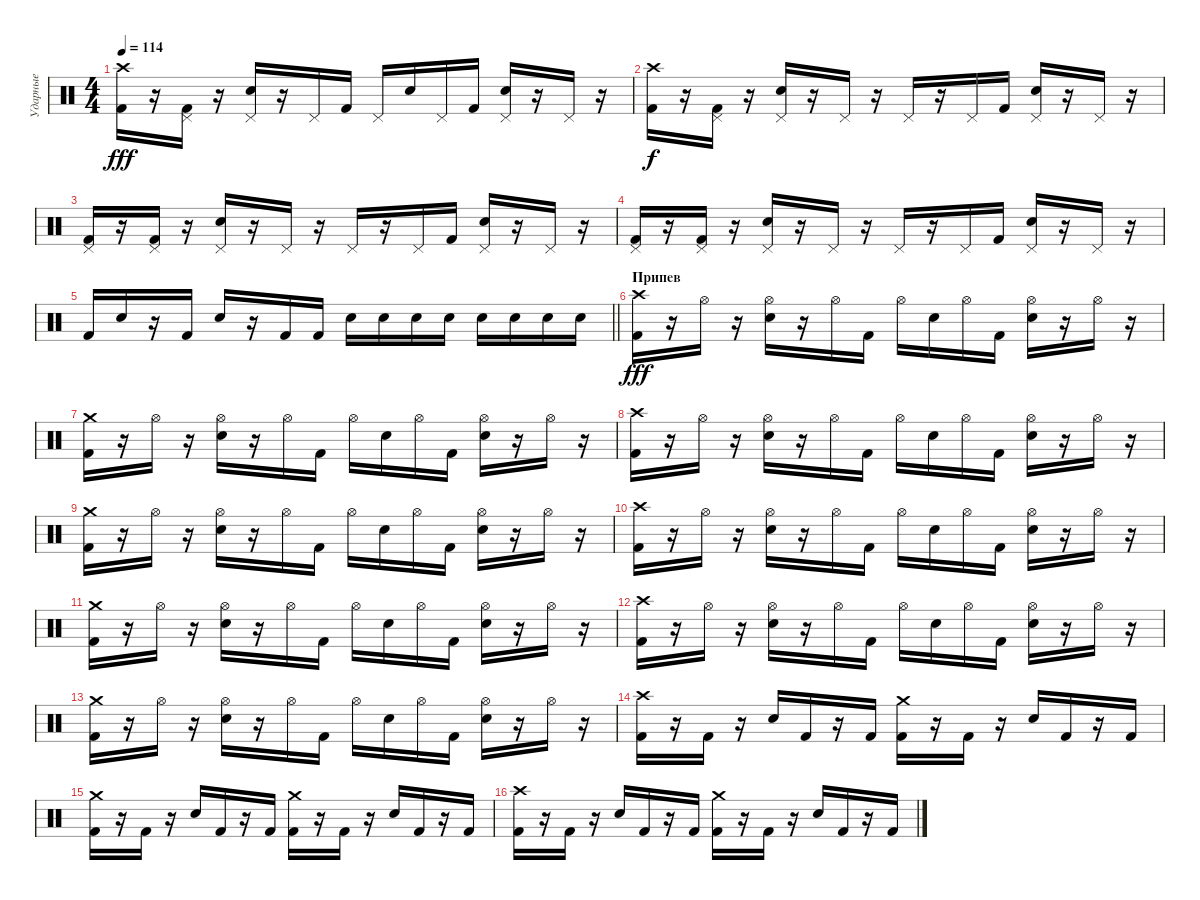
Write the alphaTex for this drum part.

\track ("Ударные" "Ударные") {instrument percussion}
\staff {score}
\articulation defaults
\ts (4 4)
\tempo 114
\clef neutral
\ks c
("Kick (hit) 2" "Crash high (hit)").16{dy fff} r.16 ("Kick (hit) 2" "Pedal Hi-Hat (hit)").16 r.16 ("Electric Snare (hit)" "Pedal Hi-Hat (hit)").16 r.16 "Pedal Hi-Hat (hit)".16 "Kick (hit) 2".16 "Pedal Hi-Hat (hit)".16 "Electric Snare (hit)".16 "Pedal Hi-Hat (hit)".16 "Kick (hit) 2".16 ("Electric Snare (hit)" "Pedal Hi-Hat (hit)").16 r.16 "Pedal Hi-Hat (hit)".16 r.16 |
("Kick (hit) 2" "Crash high (hit)").16{dy f} r.16 ("Kick (hit) 2" "Pedal Hi-Hat (hit)").16 r.16 ("Electric Snare (hit)" "Pedal Hi-Hat (hit)").16 r.16 "Pedal Hi-Hat (hit)".16 r.16 "Pedal Hi-Hat (hit)".16 r.16 "Pedal Hi-Hat (hit)".16 "Kick (hit) 2".16 ("Electric Snare (hit)" "Pedal Hi-Hat (hit)").16 r.16 "Pedal Hi-Hat (hit)".16 r.16 |
("Kick (hit) 2" "Pedal Hi-Hat (hit)").16 r.16 ("Kick (hit) 2" "Pedal Hi-Hat (hit)").16 r.16 ("Electric Snare (hit)" "Pedal Hi-Hat (hit)").16 r.16 "Pedal Hi-Hat (hit)".16 r.16 "Pedal Hi-Hat (hit)".16 r.16 "Pedal Hi-Hat (hit)".16 "Kick (hit) 2".16 ("Electric Snare (hit)" "Pedal Hi-Hat (hit)").16 r.16 "Pedal Hi-Hat (hit)".16 r.16 |
("Kick (hit) 2" "Pedal Hi-Hat (hit)").16 r.16 ("Kick (hit) 2" "Pedal Hi-Hat (hit)").16 r.16 ("Electric Snare (hit)" "Pedal Hi-Hat (hit)").16 r.16 "Pedal Hi-Hat (hit)".16 r.16 "Pedal Hi-Hat (hit)".16 r.16 "Pedal Hi-Hat (hit)".16 "Kick (hit) 2".16 ("Electric Snare (hit)" "Pedal Hi-Hat (hit)").16 r.16 "Pedal Hi-Hat (hit)".16 r.16 |
\barLineRight lightlight "Kick (hit) 2".16 "Electric Snare (hit)".16
r.16 "Kick (hit) 2".16 "Electric Snare (hit)".16 r.16 "Kick (hit) 2".16 "Kick (hit) 2".16 "Electric Snare (hit)".16 "Electric Snare (hit)".16 "Electric Snare (hit)".16 "Electric Snare (hit)".16 "Electric Snare (hit)".16 "Electric Snare (hit)".16 "Electric Snare (hit)".16 "Electric Snare (hit)".16 |
\section ("" "Припев")
("Kick (hit) 2" "Crash high (hit)").16{dy fff} r.16 "Hi-Hat (open)".16 r.16 ("Electric Snare (hit)" "Hi-Hat (open)").16 r.16 "Hi-Hat (open)".16 "Kick (hit) 2".16 "Hi-Hat (open)".16 "Electric Snare (hit)".16 "Hi-Hat (open)".16 "Kick (hit) 2".16 ("Electric Snare (hit)" "Hi-Hat (open)").16 r.16 "Hi-Hat (open)".16 r.16 |
("Kick (hit) 2" "Crash medium (hit)").16 r.16 "Hi-Hat (open)".16 r.16 ("Electric Snare (hit)" "Hi-Hat (open)").16 r.16 "Hi-Hat (open)".16 "Kick (hit) 2".16 "Hi-Hat (open)".16 "Electric Snare (hit)".16 "Hi-Hat (open)".16 "Kick (hit) 2".16 ("Electric Snare (hit)" "Hi-Hat (open)").16 r.16 "Hi-Hat (open)".16 r.16 |
("Kick (hit) 2" "Crash high (hit)").16 r.16 "Hi-Hat (open)".16 r.16 ("Electric Snare (hit)" "Hi-Hat (open)").16 r.16 "Hi-Hat (open)".16 "Kick (hit) 2".16 "Hi-Hat (open)".16 "Electric Snare (hit)".16 "Hi-Hat (open)".16 "Kick (hit) 2".16 ("Electric Snare (hit)" "Hi-Hat (open)").16 r.16 "Hi-Hat (open)".16 r.16 |
("Kick (hit) 2" "Crash medium (hit)").16 r.16 "Hi-Hat (open)".16 r.16 ("Electric Snare (hit)" "Hi-Hat (open)").16 r.16 "Hi-Hat (open)".16 "Kick (hit) 2".16 "Hi-Hat (open)".16 "Electric Snare (hit)".16 "Hi-Hat (open)".16 "Kick (hit) 2".16 ("Electric Snare (hit)" "Hi-Hat (open)").16 r.16 "Hi-Hat (open)".16 r.16 |
("Kick (hit) 2" "Crash high (hit)").16 r.16 "Hi-Hat (open)".16 r.16 ("Electric Snare (hit)" "Hi-Hat (open)").16 r.16 "Hi-Hat (open)".16 "Kick (hit) 2".16 "Hi-Hat (open)".16 "Electric Snare (hit)".16 "Hi-Hat (open)".16 "Kick (hit) 2".16 ("Electric Snare (hit)" "Hi-Hat (open)").16 r.16 "Hi-Hat (open)".16 r.16 |
("Kick (hit) 2" "Crash medium (hit)").16 r.16 "Hi-Hat (open)".16 r.16 ("Electric Snare (hit)" "Hi-Hat (open)").16 r.16 "Hi-Hat (open)".16 "Kick (hit) 2".16 "Hi-Hat (open)".16 "Electric Snare (hit)".16 "Hi-Hat (open)".16 "Kick (hit) 2".16 ("Electric Snare (hit)" "Hi-Hat (open)").16 r.16 "Hi-Hat (open)".16 r.16 |
("Kick (hit) 2" "Crash high (hit)").16 r.16 "Hi-Hat (open)".16 r.16 ("Electric Snare (hit)" "Hi-Hat (open)").16 r.16 "Hi-Hat (open)".16 "Kick (hit) 2".16 "Hi-Hat (open)".16 "Electric Snare (hit)".16 "Hi-Hat (open)".16 "Kick (hit) 2".16 ("Electric Snare (hit)" "Hi-Hat (open)").16 r.16 "Hi-Hat (open)".16 r.16 |
("Kick (hit) 2" "Crash medium (hit)").16 r.16 "Hi-Hat (open)".16 r.16 ("Electric Snare (hit)" "Hi-Hat (open)").16 r.16 "Hi-Hat (open)".16 "Kick (hit) 2".16 "Hi-Hat (open)".16 "Electric Snare (hit)".16 "Hi-Hat (open)".16 "Kick (hit) 2".16 ("Electric Snare (hit)" "Hi-Hat (open)").16 r.16 "Hi-Hat (open)".16 r.16 |
("Kick (hit) 2" "Crash high (hit)").16 r.16 "Kick (hit) 2".16 r.16 "Electric Snare (hit)".16 "Kick (hit) 2".16 r.16 "Kick (hit) 2".16 ("Kick (hit) 2" "Crash medium (hit)").16 r.16 "Kick (hit) 2".16 r.16 "Electric Snare (hit)".16 "Kick (hit) 2".16 r.16 "Kick (hit) 2".16 |
("Kick (hit) 2" "Crash medium (hit)").16 r.16 "Kick (hit) 2".16 r.16 "Electric Snare (hit)".16 "Kick (hit) 2".16 r.16 "Kick (hit) 2".16 ("Kick (hit) 2" "Crash medium (hit)").16 r.16 "Kick (hit) 2".16 r.16 "Electric Snare (hit)".16 "Kick (hit) 2".16 r.16 "Kick (hit) 2".16 |
("Kick (hit) 2" "Crash high (hit)").16 r.16 "Kick (hit) 2".16 r.16 "Electric Snare (hit)".16 "Kick (hit) 2".16 r.16 "Kick (hit) 2".16 ("Kick (hit) 2" "Crash medium (hit)").16 r.16 "Kick (hit) 2".16 r.16 "Electric Snare (hit)".16 "Kick (hit) 2".16 r.16 "Kick (hit) 2".16
